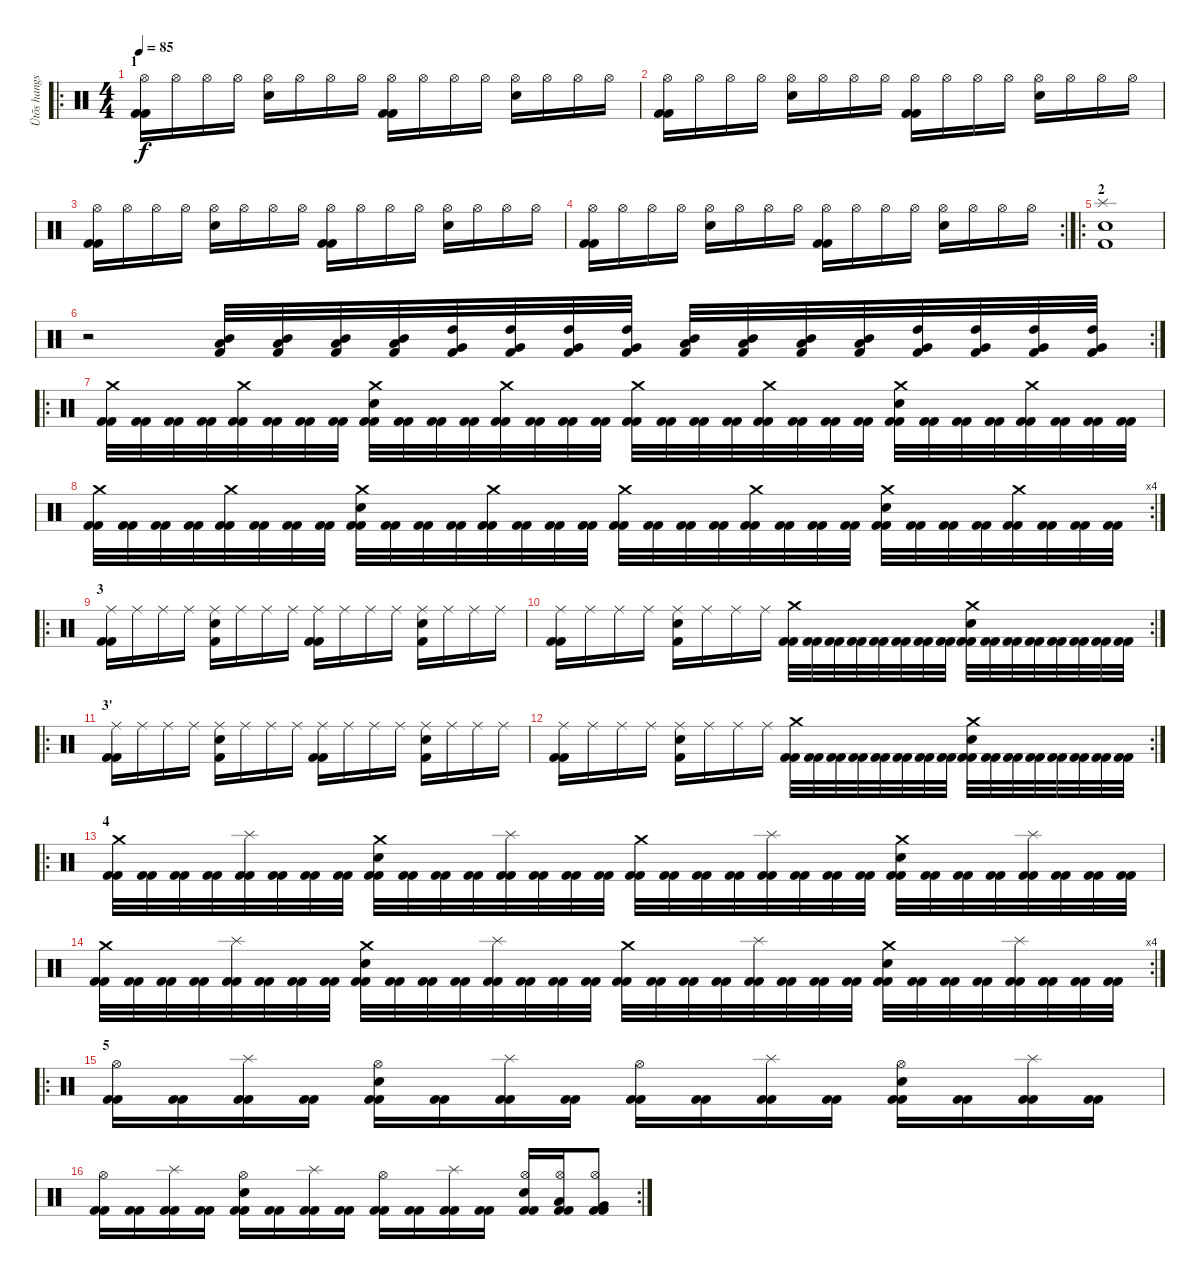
\track ("Ütõs hangszer" "Ütõs hangs") {instrument percussion}
\staff {score}
\articulation defaults
\ro
\ts (4 4)
\section ("" "1")
\tempo 85
\clef neutral
\ks c
("Kick (hit) 2" "Kick (hit) 2" "Hi-Hat (open)").16{dy f} "Hi-Hat (open)".16 "Hi-Hat (open)".16 "Hi-Hat (open)".16 ("Snare (hit) 2" "Hi-Hat (open)").16 "Hi-Hat (open)".16 "Hi-Hat (open)".16 "Hi-Hat (open)".16 ("Kick (hit) 2" "Kick (hit) 2" "Hi-Hat (open)").16 "Hi-Hat (open)".16 "Hi-Hat (open)".16 "Hi-Hat (open)".16 ("Snare (hit) 2" "Hi-Hat (open)").16 "Hi-Hat (open)".16 "Hi-Hat (open)".16 "Hi-Hat (open)".16 |
("Kick (hit) 2" "Kick (hit) 2" "Hi-Hat (open)").16 "Hi-Hat (open)".16 "Hi-Hat (open)".16 "Hi-Hat (open)".16 ("Snare (hit) 2" "Hi-Hat (open)").16 "Hi-Hat (open)".16 "Hi-Hat (open)".16 "Hi-Hat (open)".16 ("Kick (hit) 2" "Kick (hit) 2" "Hi-Hat (open)").16 "Hi-Hat (open)".16 "Hi-Hat (open)".16 "Hi-Hat (open)".16 ("Snare (hit) 2" "Hi-Hat (open)").16 "Hi-Hat (open)".16 "Hi-Hat (open)".16 "Hi-Hat (open)".16 |
("Kick (hit) 2" "Kick (hit) 2" "Hi-Hat (open)").16 "Hi-Hat (open)".16 "Hi-Hat (open)".16 "Hi-Hat (open)".16 ("Snare (hit) 2" "Hi-Hat (open)").16 "Hi-Hat (open)".16 "Hi-Hat (open)".16 "Hi-Hat (open)".16 ("Kick (hit) 2" "Kick (hit) 2" "Hi-Hat (open)").16 "Hi-Hat (open)".16 "Hi-Hat (open)".16 "Hi-Hat (open)".16 ("Snare (hit) 2" "Hi-Hat (open)").16 "Hi-Hat (open)".16 "Hi-Hat (open)".16 "Hi-Hat (open)".16 |
\rc 2
("Kick (hit) 2" "Kick (hit) 2" "Hi-Hat (open)").16 "Hi-Hat (open)".16 "Hi-Hat (open)".16 "Hi-Hat (open)".16 ("Snare (hit) 2" "Hi-Hat (open)").16 "Hi-Hat (open)".16 "Hi-Hat (open)".16 "Hi-Hat (open)".16 ("Kick (hit) 2" "Kick (hit) 2" "Hi-Hat (open)").16 "Hi-Hat (open)".16 "Hi-Hat (open)".16 "Hi-Hat (open)".16 ("Snare (hit) 2" "Hi-Hat (open)").16 "Hi-Hat (open)".16 "Hi-Hat (open)".16 "Hi-Hat (open)".16 |
\ro
\section ("" "2")
("Kick (hit) 2" "Splash (hit)" "Snare (hit) 2").1 |
\rc 2
r.2 ("Kick (hit) 2" "Mid Tom (hit)" "Low Tom (hit)").32 ("Kick (hit) 2" "Mid Tom (hit)" "Low Tom (hit)").32 ("Kick (hit) 2" "Mid Tom (hit)" "Low Tom (hit)").32 ("Kick (hit) 2" "Mid Tom (hit)" "Low Tom (hit)").32 ("Kick (hit) 2" "High Tom (hit)" "Very Low Tom (hit)").32 ("Kick (hit) 2" "High Tom (hit)" "Very Low Tom (hit)").32 ("Kick (hit) 2" "High Tom (hit)" "Very Low Tom (hit)").32 ("Kick (hit) 2" "High Tom (hit)" "Very Low Tom (hit)").32 ("Kick (hit) 2" "Low Tom (hit)" "Mid Tom (hit)").32 ("Kick (hit) 2" "Low Tom (hit)" "Mid Tom (hit)").32 ("Kick (hit) 2" "Low Tom (hit)" "Mid Tom (hit)").32 ("Kick (hit) 2" "Low Tom (hit)" "Mid Tom (hit)").32 ("Kick (hit) 2" "Very Low Tom (hit)" "High Tom (hit)").32 ("Kick (hit) 2" "Very Low Tom (hit)" "High Tom (hit)").32 ("Kick (hit) 2" "Very Low Tom (hit)" "High Tom (hit)").32 ("Kick (hit) 2" "Very Low Tom (hit)" "High Tom (hit)").32 |
\ro
("Crash medium (hit)" "Kick (hit) 2" "Kick (hit) 2").32 ("Kick (hit) 2" "Kick (hit) 2").32 ("Kick (hit) 2" "Kick (hit) 2").32 ("Kick (hit) 2" "Kick (hit) 2").32 ("Crash medium (hit)" "Kick (hit) 2" "Kick (hit) 2").32 ("Kick (hit) 2" "Kick (hit) 2").32 ("Kick (hit) 2" "Kick (hit) 2").32 ("Kick (hit) 2" "Kick (hit) 2").32 ("Snare (hit) 2" "Crash medium (hit)" "Kick (hit) 2" "Kick (hit) 2").32 ("Kick (hit) 2" "Kick (hit) 2").32 ("Kick (hit) 2" "Kick (hit) 2").32 ("Kick (hit) 2" "Kick (hit) 2").32 ("Crash medium (hit)" "Kick (hit) 2" "Kick (hit) 2").32 ("Kick (hit) 2" "Kick (hit) 2").32 ("Kick (hit) 2" "Kick (hit) 2").32 ("Kick (hit) 2" "Kick (hit) 2").32 ("Crash medium (hit)" "Kick (hit) 2" "Kick (hit) 2").32 ("Kick (hit) 2" "Kick (hit) 2").32 ("Kick (hit) 2" "Kick (hit) 2").32 ("Kick (hit) 2" "Kick (hit) 2").32 ("Crash medium (hit)" "Kick (hit) 2" "Kick (hit) 2").32 ("Kick (hit) 2" "Kick (hit) 2").32 ("Kick (hit) 2" "Kick (hit) 2").32 ("Kick (hit) 2" "Kick (hit) 2").32 ("Snare (hit) 2" "Crash medium (hit)" "Kick (hit) 2" "Kick (hit) 2").32 ("Kick (hit) 2" "Kick (hit) 2").32 ("Kick (hit) 2" "Kick (hit) 2").32 ("Kick (hit) 2" "Kick (hit) 2").32 ("Crash medium (hit)" "Kick (hit) 2" "Kick (hit) 2").32 ("Kick (hit) 2" "Kick (hit) 2").32 ("Kick (hit) 2" "Kick (hit) 2").32 ("Kick (hit) 2" "Kick (hit) 2").32 |
\rc 4
("Crash medium (hit)" "Kick (hit) 2" "Kick (hit) 2").32 ("Kick (hit) 2" "Kick (hit) 2").32 ("Kick (hit) 2" "Kick (hit) 2").32 ("Kick (hit) 2" "Kick (hit) 2").32 ("Crash medium (hit)" "Kick (hit) 2" "Kick (hit) 2").32 ("Kick (hit) 2" "Kick (hit) 2").32 ("Kick (hit) 2" "Kick (hit) 2").32 ("Kick (hit) 2" "Kick (hit) 2").32 ("Snare (hit) 2" "Crash medium (hit)" "Kick (hit) 2" "Kick (hit) 2").32 ("Kick (hit) 2" "Kick (hit) 2").32 ("Kick (hit) 2" "Kick (hit) 2").32 ("Kick (hit) 2" "Kick (hit) 2").32 ("Crash medium (hit)" "Kick (hit) 2" "Kick (hit) 2").32 ("Kick (hit) 2" "Kick (hit) 2").32 ("Kick (hit) 2" "Kick (hit) 2").32 ("Kick (hit) 2" "Kick (hit) 2").32 ("Crash medium (hit)" "Kick (hit) 2" "Kick (hit) 2").32 ("Kick (hit) 2" "Kick (hit) 2").32 ("Kick (hit) 2" "Kick (hit) 2").32 ("Kick (hit) 2" "Kick (hit) 2").32 ("Crash medium (hit)" "Kick (hit) 2" "Kick (hit) 2").32 ("Kick (hit) 2" "Kick (hit) 2").32 ("Kick (hit) 2" "Kick (hit) 2").32 ("Kick (hit) 2" "Kick (hit) 2").32 ("Snare (hit) 2" "Crash medium (hit)" "Kick (hit) 2" "Kick (hit) 2").32 ("Kick (hit) 2" "Kick (hit) 2").32 ("Kick (hit) 2" "Kick (hit) 2").32 ("Kick (hit) 2" "Kick (hit) 2").32 ("Crash medium (hit)" "Kick (hit) 2" "Kick (hit) 2").32 ("Kick (hit) 2" "Kick (hit) 2").32 ("Kick (hit) 2" "Kick (hit) 2").32 ("Kick (hit) 2" "Kick (hit) 2").32 |
\ro
\section ("" "3")
("Kick (hit) 2" "Kick (hit) 2" "Ride (middle)").16 "Ride (middle)".16 "Ride (middle)".16 "Ride (middle)".16 ("Snare (hit) 2" "Kick (hit) 2" "Ride (middle)").16 "Ride (middle)".16 "Ride (middle)".16 "Ride (middle)".16 ("Kick (hit) 2" "Kick (hit) 2" "Ride (middle)").16 "Ride (middle)".16 "Ride (middle)".16 "Ride (middle)".16 ("Snare (hit) 2" "Kick (hit) 2" "Ride (middle)").16 "Ride (middle)".16 "Ride (middle)".16 "Ride (middle)".16 |
\rc 2
("Kick (hit) 2" "Kick (hit) 2" "Ride (middle)").16 "Ride (middle)".16 "Ride (middle)".16 "Ride (middle)".16 ("Snare (hit) 2" "Kick (hit) 2" "Ride (middle)").16 "Ride (middle)".16 "Ride (middle)".16 "Ride (middle)".16 ("Crash medium (hit)" "Kick (hit) 2" "Kick (hit) 2").32 ("Kick (hit) 2" "Kick (hit) 2").32 ("Kick (hit) 2" "Kick (hit) 2").32 ("Kick (hit) 2" "Kick (hit) 2").32 ("Kick (hit) 2" "Kick (hit) 2").32 ("Kick (hit) 2" "Kick (hit) 2").32 ("Kick (hit) 2" "Kick (hit) 2").32 ("Kick (hit) 2" "Kick (hit) 2").32 ("Crash medium (hit)" "Snare (hit) 2" "Kick (hit) 2" "Kick (hit) 2").32 ("Kick (hit) 2" "Kick (hit) 2").32 ("Kick (hit) 2" "Kick (hit) 2").32 ("Kick (hit) 2" "Kick (hit) 2").32 ("Kick (hit) 2" "Kick (hit) 2").32 ("Kick (hit) 2" "Kick (hit) 2").32 ("Kick (hit) 2" "Kick (hit) 2").32 ("Kick (hit) 2" "Kick (hit) 2").32 |
\ro
\section ("" "3'")
("Kick (hit) 2" "Kick (hit) 2" "Ride (middle)").16 "Ride (middle)".16 "Ride (middle)".16 "Ride (middle)".16 ("Snare (hit) 2" "Kick (hit) 2" "Ride (middle)").16 "Ride (middle)".16 "Ride (middle)".16 "Ride (middle)".16 ("Kick (hit) 2" "Kick (hit) 2" "Ride (middle)").16 "Ride (middle)".16 "Ride (middle)".16 "Ride (middle)".16 ("Snare (hit) 2" "Kick (hit) 2" "Ride (middle)").16 "Ride (middle)".16 "Ride (middle)".16 "Ride (middle)".16 |
\rc 2
("Kick (hit) 2" "Kick (hit) 2" "Ride (middle)").16 "Ride (middle)".16 "Ride (middle)".16 "Ride (middle)".16 ("Snare (hit) 2" "Kick (hit) 2" "Ride (middle)").16 "Ride (middle)".16 "Ride (middle)".16 "Ride (middle)".16 ("Crash medium (hit)" "Kick (hit) 2" "Kick (hit) 2").32 ("Kick (hit) 2" "Kick (hit) 2").32 ("Kick (hit) 2" "Kick (hit) 2").32 ("Kick (hit) 2" "Kick (hit) 2").32 ("Kick (hit) 2" "Kick (hit) 2").32 ("Kick (hit) 2" "Kick (hit) 2").32 ("Kick (hit) 2" "Kick (hit) 2").32 ("Kick (hit) 2" "Kick (hit) 2").32 ("Crash medium (hit)" "Snare (hit) 2" "Kick (hit) 2" "Kick (hit) 2").32 ("Kick (hit) 2" "Kick (hit) 2").32 ("Kick (hit) 2" "Kick (hit) 2").32 ("Kick (hit) 2" "Kick (hit) 2").32 ("Kick (hit) 2" "Kick (hit) 2").32 ("Kick (hit) 2" "Kick (hit) 2").32 ("Kick (hit) 2" "Kick (hit) 2").32 ("Kick (hit) 2" "Kick (hit) 2").32 |
\ro
\section ("" "4")
("Crash medium (hit)" "Kick (hit) 2" "Kick (hit) 2").32 ("Kick (hit) 2" "Kick (hit) 2").32 ("Kick (hit) 2" "Kick (hit) 2").32 ("Kick (hit) 2" "Kick (hit) 2").32 ("Splash (hit)" "Kick (hit) 2" "Kick (hit) 2").32 ("Kick (hit) 2" "Kick (hit) 2").32 ("Kick (hit) 2" "Kick (hit) 2").32 ("Kick (hit) 2" "Kick (hit) 2").32 ("Crash medium (hit)" "Snare (hit) 2" "Kick (hit) 2" "Kick (hit) 2").32 ("Kick (hit) 2" "Kick (hit) 2").32 ("Kick (hit) 2" "Kick (hit) 2").32 ("Kick (hit) 2" "Kick (hit) 2").32 ("Splash (hit)" "Kick (hit) 2" "Kick (hit) 2").32 ("Kick (hit) 2" "Kick (hit) 2").32 ("Kick (hit) 2" "Kick (hit) 2").32 ("Kick (hit) 2" "Kick (hit) 2").32 ("Crash medium (hit)" "Kick (hit) 2" "Kick (hit) 2").32 ("Kick (hit) 2" "Kick (hit) 2").32 ("Kick (hit) 2" "Kick (hit) 2").32 ("Kick (hit) 2" "Kick (hit) 2").32 ("Splash (hit)" "Kick (hit) 2" "Kick (hit) 2").32 ("Kick (hit) 2" "Kick (hit) 2").32 ("Kick (hit) 2" "Kick (hit) 2").32 ("Kick (hit) 2" "Kick (hit) 2").32 ("Crash medium (hit)" "Snare (hit) 2" "Kick (hit) 2" "Kick (hit) 2").32 ("Kick (hit) 2" "Kick (hit) 2").32 ("Kick (hit) 2" "Kick (hit) 2").32 ("Kick (hit) 2" "Kick (hit) 2").32 ("Splash (hit)" "Kick (hit) 2" "Kick (hit) 2").32 ("Kick (hit) 2" "Kick (hit) 2").32 ("Kick (hit) 2" "Kick (hit) 2").32 ("Kick (hit) 2" "Kick (hit) 2").32 |
\rc 4
("Crash medium (hit)" "Kick (hit) 2" "Kick (hit) 2").32 ("Kick (hit) 2" "Kick (hit) 2").32 ("Kick (hit) 2" "Kick (hit) 2").32 ("Kick (hit) 2" "Kick (hit) 2").32 ("Splash (hit)" "Kick (hit) 2" "Kick (hit) 2").32 ("Kick (hit) 2" "Kick (hit) 2").32 ("Kick (hit) 2" "Kick (hit) 2").32 ("Kick (hit) 2" "Kick (hit) 2").32 ("Crash medium (hit)" "Snare (hit) 2" "Kick (hit) 2" "Kick (hit) 2").32 ("Kick (hit) 2" "Kick (hit) 2").32 ("Kick (hit) 2" "Kick (hit) 2").32 ("Kick (hit) 2" "Kick (hit) 2").32 ("Splash (hit)" "Kick (hit) 2" "Kick (hit) 2").32 ("Kick (hit) 2" "Kick (hit) 2").32 ("Kick (hit) 2" "Kick (hit) 2").32 ("Kick (hit) 2" "Kick (hit) 2").32 ("Crash medium (hit)" "Kick (hit) 2" "Kick (hit) 2").32 ("Kick (hit) 2" "Kick (hit) 2").32 ("Kick (hit) 2" "Kick (hit) 2").32 ("Kick (hit) 2" "Kick (hit) 2").32 ("Splash (hit)" "Kick (hit) 2" "Kick (hit) 2").32 ("Kick (hit) 2" "Kick (hit) 2").32 ("Kick (hit) 2" "Kick (hit) 2").32 ("Kick (hit) 2" "Kick (hit) 2").32 ("Crash medium (hit)" "Snare (hit) 2" "Kick (hit) 2" "Kick (hit) 2").32 ("Kick (hit) 2" "Kick (hit) 2").32 ("Kick (hit) 2" "Kick (hit) 2").32 ("Kick (hit) 2" "Kick (hit) 2").32 ("Splash (hit)" "Kick (hit) 2" "Kick (hit) 2").32 ("Kick (hit) 2" "Kick (hit) 2").32 ("Kick (hit) 2" "Kick (hit) 2").32 ("Kick (hit) 2" "Kick (hit) 2").32 |
\ro
\section ("" "5")
("Hi-Hat (open)" "Kick (hit) 2" "Kick (hit) 2").16 ("Kick (hit) 2" "Kick (hit) 2").16 ("Splash (hit)" "Kick (hit) 2" "Kick (hit) 2").16 ("Kick (hit) 2" "Kick (hit) 2").16 ("Hi-Hat (open)" "Snare (hit) 2" "Kick (hit) 2" "Kick (hit) 2").16 ("Kick (hit) 2" "Kick (hit) 2").16 ("Splash (hit)" "Kick (hit) 2" "Kick (hit) 2").16 ("Kick (hit) 2" "Kick (hit) 2").16 ("Hi-Hat (open)" "Kick (hit) 2" "Kick (hit) 2").16 ("Kick (hit) 2" "Kick (hit) 2").16 ("Splash (hit)" "Kick (hit) 2" "Kick (hit) 2").16 ("Kick (hit) 2" "Kick (hit) 2").16 ("Hi-Hat (open)" "Snare (hit) 2" "Kick (hit) 2" "Kick (hit) 2").16 ("Kick (hit) 2" "Kick (hit) 2").16 ("Splash (hit)" "Kick (hit) 2" "Kick (hit) 2").16 ("Kick (hit) 2" "Kick (hit) 2").16 |
\rc 2
("Hi-Hat (open)" "Kick (hit) 2" "Kick (hit) 2").16 ("Kick (hit) 2" "Kick (hit) 2").16 ("Splash (hit)" "Kick (hit) 2" "Kick (hit) 2").16 ("Kick (hit) 2" "Kick (hit) 2").16 ("Hi-Hat (open)" "Snare (hit) 2" "Kick (hit) 2" "Kick (hit) 2").16 ("Kick (hit) 2" "Kick (hit) 2").16 ("Splash (hit)" "Kick (hit) 2" "Kick (hit) 2").16 ("Kick (hit) 2" "Kick (hit) 2").16 ("Hi-Hat (open)" "Kick (hit) 2" "Kick (hit) 2").16 ("Kick (hit) 2" "Kick (hit) 2").16 ("Splash (hit)" "Kick (hit) 2" "Kick (hit) 2").16 ("Kick (hit) 2" "Kick (hit) 2").16 ("Hi-Hat (open)" "Snare (hit) 2" "Kick (hit) 2" "Kick (hit) 2").16 ("Hi-Hat (open)" "Low Tom (hit)" "Kick (hit) 2" "Kick (hit) 2").16 ("Hi-Hat (open)" "Very Low Tom (hit)" "Kick (hit) 2" "Kick (hit) 2").8
